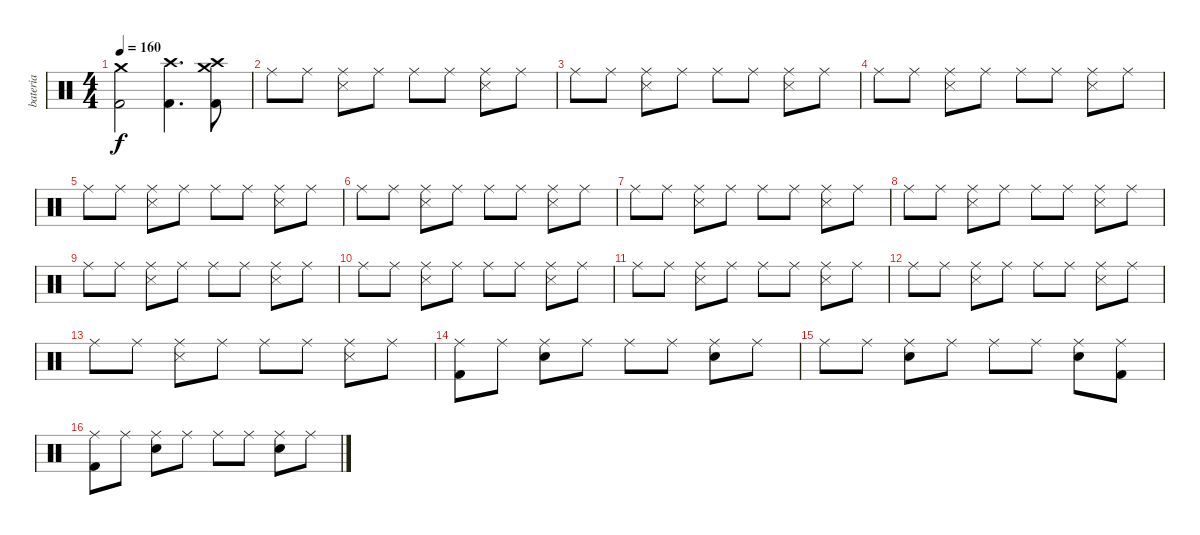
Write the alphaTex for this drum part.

\track ("bateria" "bateria") {instrument percussion}
\staff {score}
\articulation defaults
\ts (4 4)
\tempo 160
\clef neutral
\ks c
("Crash medium (hit)" "Kick (hit) 2").2{dy f} ("Crash high (hit)" "Kick (hit) 2").4{d} ("Crash medium (hit)" "Crash high (hit)" "Kick (hit) 2").8 |
"Ride (middle)".8 "Ride (middle)".8 ("Ride (middle)" "Snare (side stick) 3").8 "Ride (middle)".8 "Ride (middle)".8 "Ride (middle)".8 ("Ride (middle)" "Snare (side stick) 3").8 "Ride (middle)".8 |
"Ride (middle)".8 "Ride (middle)".8 ("Ride (middle)" "Snare (side stick) 3").8 "Ride (middle)".8 "Ride (middle)".8 "Ride (middle)".8 ("Ride (middle)" "Snare (side stick) 3").8 "Ride (middle)".8 |
"Ride (middle)".8 "Ride (middle)".8 ("Ride (middle)" "Snare (side stick) 3").8 "Ride (middle)".8 "Ride (middle)".8 "Ride (middle)".8 ("Ride (middle)" "Snare (side stick) 3").8 "Ride (middle)".8 |
"Ride (middle)".8 "Ride (middle)".8 ("Ride (middle)" "Snare (side stick) 3").8 "Ride (middle)".8 "Ride (middle)".8 "Ride (middle)".8 ("Ride (middle)" "Snare (side stick) 3").8 "Ride (middle)".8 |
"Ride (middle)".8 "Ride (middle)".8 ("Ride (middle)" "Snare (side stick) 3").8 "Ride (middle)".8 "Ride (middle)".8 "Ride (middle)".8 ("Ride (middle)" "Snare (side stick) 3").8 "Ride (middle)".8 |
"Ride (middle)".8 "Ride (middle)".8 ("Ride (middle)" "Snare (side stick) 3").8 "Ride (middle)".8 "Ride (middle)".8 "Ride (middle)".8 ("Ride (middle)" "Snare (side stick) 3").8 "Ride (middle)".8 |
"Ride (middle)".8 "Ride (middle)".8 ("Ride (middle)" "Snare (side stick) 3").8 "Ride (middle)".8 "Ride (middle)".8 "Ride (middle)".8 ("Ride (middle)" "Snare (side stick) 3").8 "Ride (middle)".8 |
"Ride (middle)".8 "Ride (middle)".8 ("Ride (middle)" "Snare (side stick) 3").8 "Ride (middle)".8 "Ride (middle)".8 "Ride (middle)".8 ("Ride (middle)" "Snare (side stick) 3").8 "Ride (middle)".8 |
"Ride (middle)".8 "Ride (middle)".8 ("Ride (middle)" "Snare (side stick) 3").8 "Ride (middle)".8 "Ride (middle)".8 "Ride (middle)".8 ("Ride (middle)" "Snare (side stick) 3").8 "Ride (middle)".8 |
"Ride (middle)".8 "Ride (middle)".8 ("Ride (middle)" "Snare (side stick) 3").8 "Ride (middle)".8 "Ride (middle)".8 "Ride (middle)".8 ("Ride (middle)" "Snare (side stick) 3").8 "Ride (middle)".8 |
"Ride (middle)".8 "Ride (middle)".8 ("Ride (middle)" "Snare (side stick) 3").8 "Ride (middle)".8 "Ride (middle)".8 "Ride (middle)".8 ("Ride (middle)" "Snare (side stick) 3").8 "Ride (middle)".8 |
"Ride (middle)".8 "Ride (middle)".8 ("Ride (middle)" "Snare (side stick) 3").8 "Ride (middle)".8 "Ride (middle)".8 "Ride (middle)".8 ("Ride (middle)" "Snare (side stick) 3").8 "Ride (middle)".8 |
("Ride (middle)" "Kick (hit) 2").8 "Ride (middle)".8 ("Ride (middle)" "Snare (hit) 2").8 "Ride (middle)".8 "Ride (middle)".8 "Ride (middle)".8 ("Ride (middle)" "Snare (hit) 2").8 "Ride (middle)".8 |
"Ride (middle)".8 "Ride (middle)".8 ("Ride (middle)" "Snare (hit) 2").8 "Ride (middle)".8 "Ride (middle)".8 "Ride (middle)".8 ("Ride (middle)" "Snare (hit) 2").8 ("Ride (middle)" "Kick (hit) 2").8 |
("Ride (middle)" "Kick (hit) 2").8 "Ride (middle)".8 ("Ride (middle)" "Snare (hit) 2").8 "Ride (middle)".8 "Ride (middle)".8 "Ride (middle)".8 ("Ride (middle)" "Snare (hit) 2").8 "Ride (middle)".8
